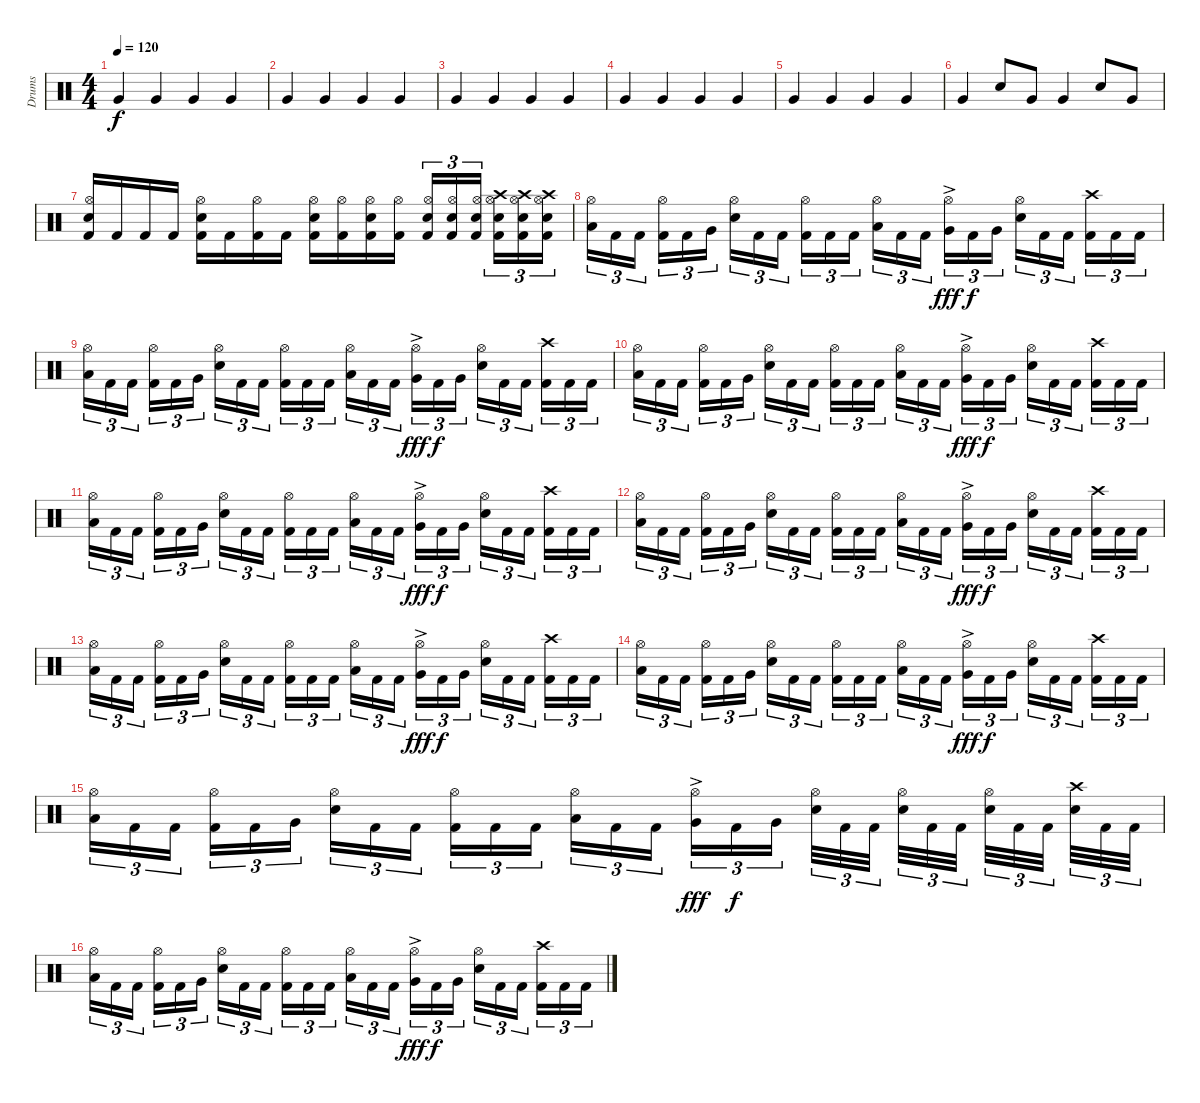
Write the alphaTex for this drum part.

\track ("Drums" "Drums") {instrument percussion}
\staff {score}
\articulation defaults
\ts (4 4)
\tempo 120
\clef neutral
\ks c "Very Low Tom (hit)".4{dy f} "Very Low Tom (hit)".4 "Very Low Tom (hit)".4 "Very Low Tom (hit)".4
|
"Very Low Tom (hit)".4 "Very Low Tom (hit)".4 "Very Low Tom (hit)".4 "Very Low Tom (hit)".4 |
"Very Low Tom (hit)".4 "Very Low Tom (hit)".4 "Very Low Tom (hit)".4 "Very Low Tom (hit)".4 |
"Very Low Tom (hit)".4 "Very Low Tom (hit)".4 "Very Low Tom (hit)".4 "Very Low Tom (hit)".4 |
"Very Low Tom (hit)".4 "Very Low Tom (hit)".4 "Very Low Tom (hit)".4 "Very Low Tom (hit)".4 |
"Very Low Tom (hit)".4 "Electric Snare (hit)".8 "Very Low Tom (hit)".8 "Very Low Tom (hit)".4 "Electric Snare (hit)".8 "Very Low Tom (hit)".8 |
("Hi-Hat (open)" "Electric Snare (hit)" "Kick (hit) 2").16 "Kick (hit) 2".16 "Kick (hit) 2".16 "Kick (hit) 2".16 ("Hi-Hat (open)" "Electric Snare (hit)" "Kick (hit) 2").16 "Kick (hit) 2".16 ("Hi-Hat (open)" "Kick (hit) 2").16 "Kick (hit) 2".16 ("Hi-Hat (open)" "Electric Snare (hit)" "Kick (hit) 2").16 ("Hi-Hat (open)" "Kick (hit) 2").16 ("Hi-Hat (open)" "Electric Snare (hit)" "Kick (hit) 2").16 ("Hi-Hat (open)" "Kick (hit) 2").16 ("Hi-Hat (open)" "Electric Snare (hit)" "Kick (hit) 2").16{tu (3 2)} ("Hi-Hat (open)" "Electric Snare (hit)" "Kick (hit) 2").16{tu (3 2)} ("Hi-Hat (open)" "Electric Snare (hit)" "Kick (hit) 2").16{tu (3 2)} ("Crash high (hit)" "Hi-Hat (open)" "Electric Snare (hit)" "Kick (hit) 2").16{tu (3 2)} ("Crash high (hit)" "Hi-Hat (open)" "Electric Snare (hit)" "Kick (hit) 2").16{tu (3 2)} ("Crash high (hit)" "Hi-Hat (open)" "Electric Snare (hit)" "Kick (hit) 2").16{tu (3 2)} |
("Hi-Hat (open)" "Low Tom (hit)").16{tu (3 2)} "Kick (hit) 2".16{tu (3 2)} "Kick (hit) 2".16{tu (3 2)} ("Hi-Hat (open)" "Kick (hit) 2").16{tu (3 2)} "Kick (hit) 2".16{tu (3 2)} "Very Low Tom (hit)".16{tu (3 2)} ("Hi-Hat (open)" "Electric Snare (hit)").16{tu (3 2)} "Kick (hit) 2".16{tu (3 2)} "Kick (hit) 2".16{tu (3 2)} ("Hi-Hat (open)" "Kick (hit) 2").16{tu (3 2)} "Kick (hit) 2".16{tu (3 2)} "Kick (hit) 2".16{tu (3 2)} ("Hi-Hat (open)" "Low Tom (hit)").16{tu (3 2)} "Kick (hit) 2".16{tu (3 2)} "Kick (hit) 2".16{tu (3 2)} ("Hi-Hat (open)" "Very Low Tom (hit)"{ac}).16{tu (3 2) dy fff} "Kick (hit) 2".16{tu (3 2) dy f} "Very Low Tom (hit)".16{tu (3 2)} ("Hi-Hat (open)" "Electric Snare (hit)").16{tu (3 2)} "Kick (hit) 2".16{tu (3 2)} "Kick (hit) 2".16{tu (3 2)} ("Crash high (hit)" "Kick (hit) 2").16{tu (3 2)} "Kick (hit) 2".16{tu (3 2)} "Kick (hit) 2".16{tu (3 2)} |
("Hi-Hat (open)" "Low Tom (hit)").16{tu (3 2)} "Kick (hit) 2".16{tu (3 2)} "Kick (hit) 2".16{tu (3 2)} ("Hi-Hat (open)" "Kick (hit) 2").16{tu (3 2)} "Kick (hit) 2".16{tu (3 2)} "Very Low Tom (hit)".16{tu (3 2)} ("Hi-Hat (open)" "Electric Snare (hit)").16{tu (3 2)} "Kick (hit) 2".16{tu (3 2)} "Kick (hit) 2".16{tu (3 2)} ("Hi-Hat (open)" "Kick (hit) 2").16{tu (3 2)} "Kick (hit) 2".16{tu (3 2)} "Kick (hit) 2".16{tu (3 2)} ("Hi-Hat (open)" "Low Tom (hit)").16{tu (3 2)} "Kick (hit) 2".16{tu (3 2)} "Kick (hit) 2".16{tu (3 2)} ("Hi-Hat (open)" "Very Low Tom (hit)"{ac}).16{tu (3 2) dy fff} "Kick (hit) 2".16{tu (3 2) dy f} "Very Low Tom (hit)".16{tu (3 2)} ("Hi-Hat (open)" "Electric Snare (hit)").16{tu (3 2)} "Kick (hit) 2".16{tu (3 2)} "Kick (hit) 2".16{tu (3 2)} ("Crash high (hit)" "Kick (hit) 2").16{tu (3 2)} "Kick (hit) 2".16{tu (3 2)} "Kick (hit) 2".16{tu (3 2)} |
("Hi-Hat (open)" "Low Tom (hit)").16{tu (3 2)} "Kick (hit) 2".16{tu (3 2)} "Kick (hit) 2".16{tu (3 2)} ("Hi-Hat (open)" "Kick (hit) 2").16{tu (3 2)} "Kick (hit) 2".16{tu (3 2)} "Very Low Tom (hit)".16{tu (3 2)} ("Hi-Hat (open)" "Electric Snare (hit)").16{tu (3 2)} "Kick (hit) 2".16{tu (3 2)} "Kick (hit) 2".16{tu (3 2)} ("Hi-Hat (open)" "Kick (hit) 2").16{tu (3 2)} "Kick (hit) 2".16{tu (3 2)} "Kick (hit) 2".16{tu (3 2)} ("Hi-Hat (open)" "Low Tom (hit)").16{tu (3 2)} "Kick (hit) 2".16{tu (3 2)} "Kick (hit) 2".16{tu (3 2)} ("Hi-Hat (open)" "Very Low Tom (hit)"{ac}).16{tu (3 2) dy fff} "Kick (hit) 2".16{tu (3 2) dy f} "Very Low Tom (hit)".16{tu (3 2)} ("Hi-Hat (open)" "Electric Snare (hit)").16{tu (3 2)} "Kick (hit) 2".16{tu (3 2)} "Kick (hit) 2".16{tu (3 2)} ("Crash high (hit)" "Kick (hit) 2").16{tu (3 2)} "Kick (hit) 2".16{tu (3 2)} "Kick (hit) 2".16{tu (3 2)} |
("Hi-Hat (open)" "Low Tom (hit)").16{tu (3 2)} "Kick (hit) 2".16{tu (3 2)} "Kick (hit) 2".16{tu (3 2)} ("Hi-Hat (open)" "Kick (hit) 2").16{tu (3 2)} "Kick (hit) 2".16{tu (3 2)} "Very Low Tom (hit)".16{tu (3 2)} ("Hi-Hat (open)" "Electric Snare (hit)").16{tu (3 2)} "Kick (hit) 2".16{tu (3 2)} "Kick (hit) 2".16{tu (3 2)} ("Hi-Hat (open)" "Kick (hit) 2").16{tu (3 2)} "Kick (hit) 2".16{tu (3 2)} "Kick (hit) 2".16{tu (3 2)} ("Hi-Hat (open)" "Low Tom (hit)").16{tu (3 2)} "Kick (hit) 2".16{tu (3 2)} "Kick (hit) 2".16{tu (3 2)} ("Hi-Hat (open)" "Very Low Tom (hit)"{ac}).16{tu (3 2) dy fff} "Kick (hit) 2".16{tu (3 2) dy f} "Very Low Tom (hit)".16{tu (3 2)} ("Hi-Hat (open)" "Electric Snare (hit)").16{tu (3 2)} "Kick (hit) 2".16{tu (3 2)} "Kick (hit) 2".16{tu (3 2)} ("Crash high (hit)" "Kick (hit) 2").16{tu (3 2)} "Kick (hit) 2".16{tu (3 2)} "Kick (hit) 2".16{tu (3 2)} |
("Hi-Hat (open)" "Low Tom (hit)").16{tu (3 2)} "Kick (hit) 2".16{tu (3 2)} "Kick (hit) 2".16{tu (3 2)} ("Hi-Hat (open)" "Kick (hit) 2").16{tu (3 2)} "Kick (hit) 2".16{tu (3 2)} "Very Low Tom (hit)".16{tu (3 2)} ("Hi-Hat (open)" "Electric Snare (hit)").16{tu (3 2)} "Kick (hit) 2".16{tu (3 2)} "Kick (hit) 2".16{tu (3 2)} ("Hi-Hat (open)" "Kick (hit) 2").16{tu (3 2)} "Kick (hit) 2".16{tu (3 2)} "Kick (hit) 2".16{tu (3 2)} ("Hi-Hat (open)" "Low Tom (hit)").16{tu (3 2)} "Kick (hit) 2".16{tu (3 2)} "Kick (hit) 2".16{tu (3 2)} ("Hi-Hat (open)" "Very Low Tom (hit)"{ac}).16{tu (3 2) dy fff} "Kick (hit) 2".16{tu (3 2) dy f} "Very Low Tom (hit)".16{tu (3 2)} ("Hi-Hat (open)" "Electric Snare (hit)").16{tu (3 2)} "Kick (hit) 2".16{tu (3 2)} "Kick (hit) 2".16{tu (3 2)} ("Crash high (hit)" "Kick (hit) 2").16{tu (3 2)} "Kick (hit) 2".16{tu (3 2)} "Kick (hit) 2".16{tu (3 2)} |
("Hi-Hat (open)" "Low Tom (hit)").16{tu (3 2)} "Kick (hit) 2".16{tu (3 2)} "Kick (hit) 2".16{tu (3 2)} ("Hi-Hat (open)" "Kick (hit) 2").16{tu (3 2)} "Kick (hit) 2".16{tu (3 2)} "Very Low Tom (hit)".16{tu (3 2)} ("Hi-Hat (open)" "Electric Snare (hit)").16{tu (3 2)} "Kick (hit) 2".16{tu (3 2)} "Kick (hit) 2".16{tu (3 2)} ("Hi-Hat (open)" "Kick (hit) 2").16{tu (3 2)} "Kick (hit) 2".16{tu (3 2)} "Kick (hit) 2".16{tu (3 2)} ("Hi-Hat (open)" "Low Tom (hit)").16{tu (3 2)} "Kick (hit) 2".16{tu (3 2)} "Kick (hit) 2".16{tu (3 2)} ("Hi-Hat (open)" "Very Low Tom (hit)"{ac}).16{tu (3 2) dy fff} "Kick (hit) 2".16{tu (3 2) dy f} "Very Low Tom (hit)".16{tu (3 2)} ("Hi-Hat (open)" "Electric Snare (hit)").16{tu (3 2)} "Kick (hit) 2".16{tu (3 2)} "Kick (hit) 2".16{tu (3 2)} ("Crash high (hit)" "Kick (hit) 2").16{tu (3 2)} "Kick (hit) 2".16{tu (3 2)} "Kick (hit) 2".16{tu (3 2)} |
("Hi-Hat (open)" "Low Tom (hit)").16{tu (3 2)} "Kick (hit) 2".16{tu (3 2)} "Kick (hit) 2".16{tu (3 2)} ("Hi-Hat (open)" "Kick (hit) 2").16{tu (3 2)} "Kick (hit) 2".16{tu (3 2)} "Very Low Tom (hit)".16{tu (3 2)} ("Hi-Hat (open)" "Electric Snare (hit)").16{tu (3 2)} "Kick (hit) 2".16{tu (3 2)} "Kick (hit) 2".16{tu (3 2)} ("Hi-Hat (open)" "Kick (hit) 2").16{tu (3 2)} "Kick (hit) 2".16{tu (3 2)} "Kick (hit) 2".16{tu (3 2)} ("Hi-Hat (open)" "Low Tom (hit)").16{tu (3 2)} "Kick (hit) 2".16{tu (3 2)} "Kick (hit) 2".16{tu (3 2)} ("Hi-Hat (open)" "Very Low Tom (hit)"{ac}).16{tu (3 2) dy fff} "Kick (hit) 2".16{tu (3 2) dy f} "Very Low Tom (hit)".16{tu (3 2)} ("Hi-Hat (open)" "Electric Snare (hit)").16{tu (3 2)} "Kick (hit) 2".16{tu (3 2)} "Kick (hit) 2".16{tu (3 2)} ("Crash high (hit)" "Kick (hit) 2").16{tu (3 2)} "Kick (hit) 2".16{tu (3 2)} "Kick (hit) 2".16{tu (3 2)} |
("Hi-Hat (open)" "Low Tom (hit)").16{tu (3 2)} "Kick (hit) 2".16{tu (3 2)} "Kick (hit) 2".16{tu (3 2)} ("Hi-Hat (open)" "Kick (hit) 2").16{tu (3 2)} "Kick (hit) 2".16{tu (3 2)} "Very Low Tom (hit)".16{tu (3 2)} ("Hi-Hat (open)" "Electric Snare (hit)").16{tu (3 2)} "Kick (hit) 2".16{tu (3 2)} "Kick (hit) 2".16{tu (3 2)} ("Hi-Hat (open)" "Kick (hit) 2").16{tu (3 2)} "Kick (hit) 2".16{tu (3 2)} "Kick (hit) 2".16{tu (3 2)} ("Hi-Hat (open)" "Low Tom (hit)").16{tu (3 2)} "Kick (hit) 2".16{tu (3 2)} "Kick (hit) 2".16{tu (3 2)} ("Hi-Hat (open)" "Very Low Tom (hit)"{ac}).16{tu (3 2) dy fff} "Kick (hit) 2".16{tu (3 2) dy f} "Very Low Tom (hit)".16{tu (3 2)} ("Hi-Hat (open)" "Electric Snare (hit)").32{tu (3 2)} "Kick (hit) 2".32{tu (3 2)} "Kick (hit) 2".32{tu (3 2)} ("Hi-Hat (open)" "Electric Snare (hit)").32{tu (3 2)} "Kick (hit) 2".32{tu (3 2)} "Kick (hit) 2".32{tu (3 2)} ("Hi-Hat (open)" "Electric Snare (hit)").32{tu (3 2)} "Kick (hit) 2".32{tu (3 2)} "Kick (hit) 2".32{tu (3 2)} ("Crash high (hit)" "Electric Snare (hit)").32{tu (3 2)} "Kick (hit) 2".32{tu (3 2)} "Kick (hit) 2".32{tu (3 2)} |
("Hi-Hat (open)" "Low Tom (hit)").16{tu (3 2)} "Kick (hit) 2".16{tu (3 2)} "Kick (hit) 2".16{tu (3 2)} ("Hi-Hat (open)" "Kick (hit) 2").16{tu (3 2)} "Kick (hit) 2".16{tu (3 2)} "Very Low Tom (hit)".16{tu (3 2)} ("Hi-Hat (open)" "Electric Snare (hit)").16{tu (3 2)} "Kick (hit) 2".16{tu (3 2)} "Kick (hit) 2".16{tu (3 2)} ("Hi-Hat (open)" "Kick (hit) 2").16{tu (3 2)} "Kick (hit) 2".16{tu (3 2)} "Kick (hit) 2".16{tu (3 2)} ("Hi-Hat (open)" "Low Tom (hit)").16{tu (3 2)} "Kick (hit) 2".16{tu (3 2)} "Kick (hit) 2".16{tu (3 2)} ("Hi-Hat (open)" "Very Low Tom (hit)"{ac}).16{tu (3 2) dy fff} "Kick (hit) 2".16{tu (3 2) dy f} "Very Low Tom (hit)".16{tu (3 2)} ("Hi-Hat (open)" "Electric Snare (hit)").16{tu (3 2)} "Kick (hit) 2".16{tu (3 2)} "Kick (hit) 2".16{tu (3 2)} ("Crash high (hit)" "Kick (hit) 2").16{tu (3 2)} "Kick (hit) 2".16{tu (3 2)} "Kick (hit) 2".16{tu (3 2)}
